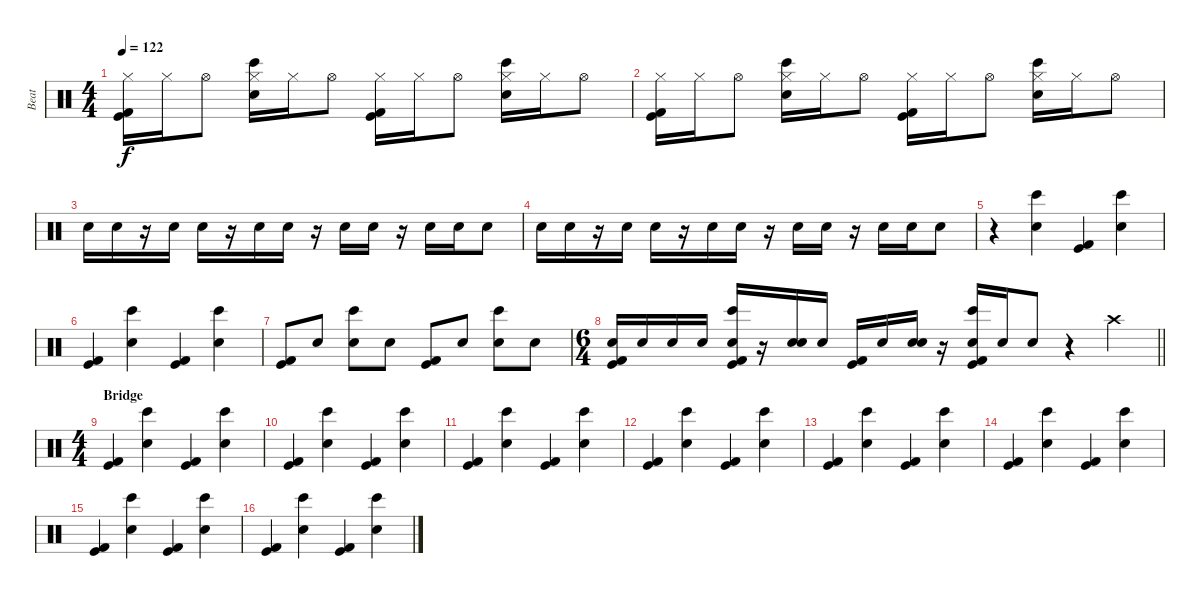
\track ("Beat" "Beat") {instrument percussion}
\staff {score}
\articulation defaults
\ts (4 4)
\tempo 122
\clef neutral
\ks c
("Hi-Hat (closed)" "Kick (hit)" "Kick (hit) 2").16{dy f} "Hi-Hat (closed)".16 "Hi-Hat (open)".8 ("Hi-Hat (closed)" "Bongo High (hit)" "Electric Snare (hit)").16 "Hi-Hat (closed)".16 "Hi-Hat (open)".8 ("Hi-Hat (closed)" "Kick (hit)" "Kick (hit) 2").16 "Hi-Hat (closed)".16 "Hi-Hat (open)".8 ("Hi-Hat (closed)" "Bongo High (hit)" "Electric Snare (hit)").16 "Hi-Hat (closed)".16 "Hi-Hat (open)".8 |
("Hi-Hat (closed)" "Kick (hit)" "Kick (hit) 2").16 "Hi-Hat (closed)".16 "Hi-Hat (open)".8 ("Hi-Hat (closed)" "Bongo High (hit)" "Electric Snare (hit)").16 "Hi-Hat (closed)".16 "Hi-Hat (open)".8 ("Hi-Hat (closed)" "Kick (hit)" "Kick (hit) 2").16 "Hi-Hat (closed)".16 "Hi-Hat (open)".8 ("Hi-Hat (closed)" "Bongo High (hit)" "Electric Snare (hit)").16 "Hi-Hat (closed)".16 "Hi-Hat (open)".8 |
"Electric Snare (hit)".16 "Electric Snare (hit)".16 r.16 "Electric Snare (hit)".16 "Electric Snare (hit)".16 r.16 "Electric Snare (hit)".16 "Electric Snare (hit)".16 r.16 "Electric Snare (hit)".16 "Electric Snare (hit)".16 r.16 "Electric Snare (hit)".16 "Electric Snare (hit)".16 "Electric Snare (hit)".8 |
"Electric Snare (hit)".16 "Electric Snare (hit)".16 r.16 "Electric Snare (hit)".16 "Electric Snare (hit)".16 r.16 "Electric Snare (hit)".16 "Electric Snare (hit)".16 r.16 "Electric Snare (hit)".16 "Electric Snare (hit)".16 r.16 "Electric Snare (hit)".16 "Electric Snare (hit)".16 "Electric Snare (hit)".8 |
r.4 ("Bongo High (hit)" "Electric Snare (hit)").4 ("Kick (hit)" "Kick (hit) 2").4 ("Bongo High (hit)" "Electric Snare (hit)").4 |
("Kick (hit)" "Kick (hit) 2").4 ("Bongo High (hit)" "Electric Snare (hit)").4 ("Kick (hit)" "Kick (hit) 2").4 ("Bongo High (hit)" "Electric Snare (hit)").4 |
("Kick (hit)" "Kick (hit) 2").8 "Hand Clap (hit)".8 ("Bongo High (hit)" "Electric Snare (hit)").8 "Hand Clap (hit)".8 ("Kick (hit)" "Kick (hit) 2").8 "Hand Clap (hit)".8 ("Bongo High (hit)" "Electric Snare (hit)").8 "Hand Clap (hit)".8 |
\ts (6 4)
\barLineRight lightlight
("Electric Snare (hit)" "Kick (hit)" "Kick (hit) 2").16 "Electric Snare (hit)".16 "Hand Clap (hit)".16 "Electric Snare (hit)".16 ("Bongo High (hit)" "Electric Snare (hit)" "Kick (hit)" "Kick (hit) 2").16 r.16 ("Hand Clap (hit)" "Electric Snare (hit)").16 "Electric Snare (hit)".16 ("Kick (hit)" "Kick (hit) 2").16 "Electric Snare (hit)".16 ("Hand Clap (hit)" "Electric Snare (hit)").16 r.16 ("Bongo High (hit)" "Electric Snare (hit)" "Kick (hit)" "Kick (hit) 2").16 "Electric Snare (hit)".16 "Electric Snare (hit)".8 r.4{volume 0} "Crash high (hit)".4{volume 11} |
\ts (4 4)
\section ("" "Bridge")
("Kick (hit)" "Kick (hit) 2").4 ("Bongo High (hit)" "Electric Snare (hit)").4 ("Kick (hit)" "Kick (hit) 2").4 ("Bongo High (hit)" "Electric Snare (hit)").4 |
("Kick (hit)" "Kick (hit) 2").4 ("Bongo High (hit)" "Electric Snare (hit)").4 ("Kick (hit)" "Kick (hit) 2").4 ("Bongo High (hit)" "Electric Snare (hit)").4 |
("Kick (hit)" "Kick (hit) 2").4 ("Bongo High (hit)" "Electric Snare (hit)").4 ("Kick (hit)" "Kick (hit) 2").4 ("Bongo High (hit)" "Electric Snare (hit)").4 |
("Kick (hit)" "Kick (hit) 2").4 ("Bongo High (hit)" "Electric Snare (hit)").4 ("Kick (hit)" "Kick (hit) 2").4 ("Bongo High (hit)" "Electric Snare (hit)").4 |
("Kick (hit)" "Kick (hit) 2").4 ("Bongo High (hit)" "Electric Snare (hit)").4 ("Kick (hit)" "Kick (hit) 2").4 ("Bongo High (hit)" "Electric Snare (hit)").4 |
("Kick (hit)" "Kick (hit) 2").4 ("Bongo High (hit)" "Electric Snare (hit)").4 ("Kick (hit)" "Kick (hit) 2").4 ("Bongo High (hit)" "Electric Snare (hit)").4 |
("Kick (hit)" "Kick (hit) 2").4 ("Bongo High (hit)" "Electric Snare (hit)").4 ("Kick (hit)" "Kick (hit) 2").4 ("Bongo High (hit)" "Electric Snare (hit)").4 |
("Kick (hit)" "Kick (hit) 2").4 ("Bongo High (hit)" "Electric Snare (hit)").4 ("Kick (hit)" "Kick (hit) 2").4 ("Bongo High (hit)" "Electric Snare (hit)").4
